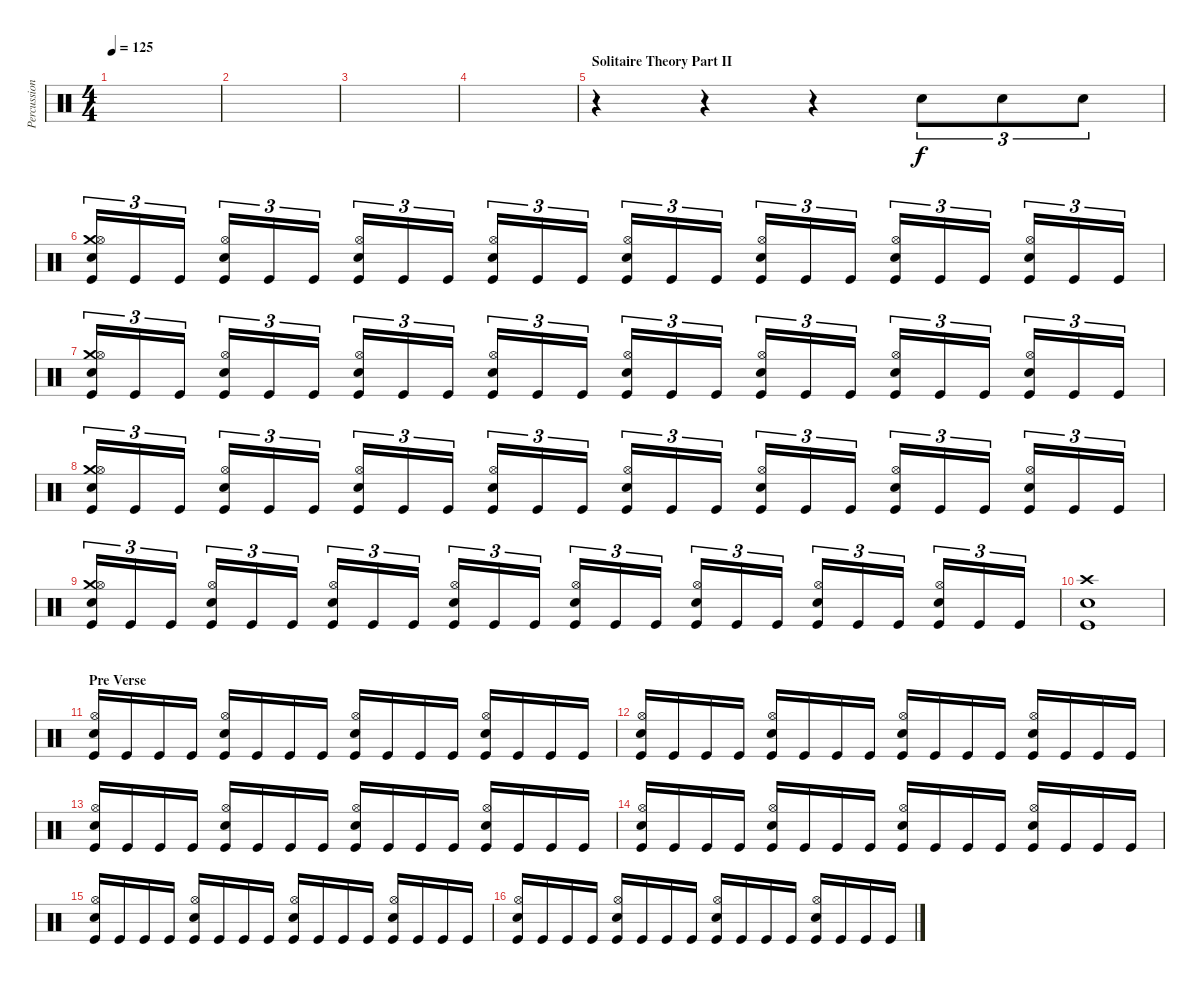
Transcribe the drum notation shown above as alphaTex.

\track ("Percussion" "Percussion") {instrument percussion}
\staff {score}
\articulation defaults
\ts (4 4)
\tempo 125
\clef neutral
\ks c
|
|
|
|
\section ("" "Solitaire Theory Part II")
r.4 r.4 r.4 "Electric Snare (hit)".8{tu (3 2)} "Electric Snare (hit)".8{tu (3 2)} "Electric Snare (hit)".8{tu (3 2)} |
("Crash medium (hit)" "Electric Snare (hit)" "Hi-Hat (open)" "Kick (hit)").16{tu (3 2)} "Kick (hit)".16{tu (3 2)} "Kick (hit)".16{tu (3 2)} ("Electric Snare (hit)" "Hi-Hat (open)" "Kick (hit)").16{tu (3 2)} "Kick (hit)".16{tu (3 2)} "Kick (hit)".16{tu (3 2)} ("Electric Snare (hit)" "Hi-Hat (open)" "Kick (hit)").16{tu (3 2)} "Kick (hit)".16{tu (3 2)} "Kick (hit)".16{tu (3 2)} ("Electric Snare (hit)" "Hi-Hat (open)" "Kick (hit)").16{tu (3 2)} "Kick (hit)".16{tu (3 2)} "Kick (hit)".16{tu (3 2)} ("Electric Snare (hit)" "Hi-Hat (open)" "Kick (hit)").16{tu (3 2)} "Kick (hit)".16{tu (3 2)} "Kick (hit)".16{tu (3 2)} ("Electric Snare (hit)" "Hi-Hat (open)" "Kick (hit)").16{tu (3 2)} "Kick (hit)".16{tu (3 2)} "Kick (hit)".16{tu (3 2)} ("Electric Snare (hit)" "Hi-Hat (open)" "Kick (hit)").16{tu (3 2)} "Kick (hit)".16{tu (3 2)} "Kick (hit)".16{tu (3 2)} ("Electric Snare (hit)" "Hi-Hat (open)" "Kick (hit)").16{tu (3 2)} "Kick (hit)".16{tu (3 2)} "Kick (hit)".16{tu (3 2)} |
("Crash medium (hit)" "Electric Snare (hit)" "Hi-Hat (open)" "Kick (hit)").16{tu (3 2)} "Kick (hit)".16{tu (3 2)} "Kick (hit)".16{tu (3 2)} ("Electric Snare (hit)" "Hi-Hat (open)" "Kick (hit)").16{tu (3 2)} "Kick (hit)".16{tu (3 2)} "Kick (hit)".16{tu (3 2)} ("Electric Snare (hit)" "Hi-Hat (open)" "Kick (hit)").16{tu (3 2)} "Kick (hit)".16{tu (3 2)} "Kick (hit)".16{tu (3 2)} ("Electric Snare (hit)" "Hi-Hat (open)" "Kick (hit)").16{tu (3 2)} "Kick (hit)".16{tu (3 2)} "Kick (hit)".16{tu (3 2)} ("Electric Snare (hit)" "Hi-Hat (open)" "Kick (hit)").16{tu (3 2)} "Kick (hit)".16{tu (3 2)} "Kick (hit)".16{tu (3 2)} ("Electric Snare (hit)" "Hi-Hat (open)" "Kick (hit)").16{tu (3 2)} "Kick (hit)".16{tu (3 2)} "Kick (hit)".16{tu (3 2)} ("Electric Snare (hit)" "Hi-Hat (open)" "Kick (hit)").16{tu (3 2)} "Kick (hit)".16{tu (3 2)} "Kick (hit)".16{tu (3 2)} ("Electric Snare (hit)" "Hi-Hat (open)" "Kick (hit)").16{tu (3 2)} "Kick (hit)".16{tu (3 2)} "Kick (hit)".16{tu (3 2)} |
("Crash medium (hit)" "Electric Snare (hit)" "Hi-Hat (open)" "Kick (hit)").16{tu (3 2)} "Kick (hit)".16{tu (3 2)} "Kick (hit)".16{tu (3 2)} ("Electric Snare (hit)" "Hi-Hat (open)" "Kick (hit)").16{tu (3 2)} "Kick (hit)".16{tu (3 2)} "Kick (hit)".16{tu (3 2)} ("Electric Snare (hit)" "Hi-Hat (open)" "Kick (hit)").16{tu (3 2)} "Kick (hit)".16{tu (3 2)} "Kick (hit)".16{tu (3 2)} ("Electric Snare (hit)" "Hi-Hat (open)" "Kick (hit)").16{tu (3 2)} "Kick (hit)".16{tu (3 2)} "Kick (hit)".16{tu (3 2)} ("Electric Snare (hit)" "Hi-Hat (open)" "Kick (hit)").16{tu (3 2)} "Kick (hit)".16{tu (3 2)} "Kick (hit)".16{tu (3 2)} ("Electric Snare (hit)" "Hi-Hat (open)" "Kick (hit)").16{tu (3 2)} "Kick (hit)".16{tu (3 2)} "Kick (hit)".16{tu (3 2)} ("Electric Snare (hit)" "Hi-Hat (open)" "Kick (hit)").16{tu (3 2)} "Kick (hit)".16{tu (3 2)} "Kick (hit)".16{tu (3 2)} ("Electric Snare (hit)" "Hi-Hat (open)" "Kick (hit)").16{tu (3 2)} "Kick (hit)".16{tu (3 2)} "Kick (hit)".16{tu (3 2)} |
("Crash medium (hit)" "Electric Snare (hit)" "Hi-Hat (open)" "Kick (hit)").16{tu (3 2)} "Kick (hit)".16{tu (3 2)} "Kick (hit)".16{tu (3 2)} ("Electric Snare (hit)" "Hi-Hat (open)" "Kick (hit)").16{tu (3 2)} "Kick (hit)".16{tu (3 2)} "Kick (hit)".16{tu (3 2)} ("Electric Snare (hit)" "Hi-Hat (open)" "Kick (hit)").16{tu (3 2)} "Kick (hit)".16{tu (3 2)} "Kick (hit)".16{tu (3 2)} ("Electric Snare (hit)" "Hi-Hat (open)" "Kick (hit)").16{tu (3 2)} "Kick (hit)".16{tu (3 2)} "Kick (hit)".16{tu (3 2)} ("Electric Snare (hit)" "Hi-Hat (open)" "Kick (hit)").16{tu (3 2)} "Kick (hit)".16{tu (3 2)} "Kick (hit)".16{tu (3 2)} ("Electric Snare (hit)" "Hi-Hat (open)" "Kick (hit)").16{tu (3 2)} "Kick (hit)".16{tu (3 2)} "Kick (hit)".16{tu (3 2)} ("Electric Snare (hit)" "Hi-Hat (open)" "Kick (hit)").16{tu (3 2)} "Kick (hit)".16{tu (3 2)} "Kick (hit)".16{tu (3 2)} ("Electric Snare (hit)" "Hi-Hat (open)" "Kick (hit)").16{tu (3 2)} "Kick (hit)".16{tu (3 2)} "Kick (hit)".16{tu (3 2)} |
("Crash high (hit)" "Electric Snare (hit)" "Kick (hit)").1 |
\section ("" "Pre Verse")
("Kick (hit)" "Electric Snare (hit)" "Hi-Hat (open)").16 "Kick (hit)".16 "Kick (hit)".16 "Kick (hit)".16 ("Kick (hit)" "Electric Snare (hit)" "Hi-Hat (open)").16 "Kick (hit)".16 "Kick (hit)".16 "Kick (hit)".16 ("Kick (hit)" "Electric Snare (hit)" "Hi-Hat (open)").16 "Kick (hit)".16 "Kick (hit)".16 "Kick (hit)".16 ("Kick (hit)" "Electric Snare (hit)" "Hi-Hat (open)").16 "Kick (hit)".16 "Kick (hit)".16 "Kick (hit)".16 |
("Kick (hit)" "Electric Snare (hit)" "Hi-Hat (open)").16 "Kick (hit)".16 "Kick (hit)".16 "Kick (hit)".16 ("Kick (hit)" "Electric Snare (hit)" "Hi-Hat (open)").16 "Kick (hit)".16 "Kick (hit)".16 "Kick (hit)".16 ("Kick (hit)" "Electric Snare (hit)" "Hi-Hat (open)").16 "Kick (hit)".16 "Kick (hit)".16 "Kick (hit)".16 ("Kick (hit)" "Electric Snare (hit)" "Hi-Hat (open)").16 "Kick (hit)".16 "Kick (hit)".16 "Kick (hit)".16 |
("Kick (hit)" "Electric Snare (hit)" "Hi-Hat (open)").16 "Kick (hit)".16 "Kick (hit)".16 "Kick (hit)".16 ("Kick (hit)" "Electric Snare (hit)" "Hi-Hat (open)").16 "Kick (hit)".16 "Kick (hit)".16 "Kick (hit)".16 ("Kick (hit)" "Electric Snare (hit)" "Hi-Hat (open)").16 "Kick (hit)".16 "Kick (hit)".16 "Kick (hit)".16 ("Kick (hit)" "Electric Snare (hit)" "Hi-Hat (open)").16 "Kick (hit)".16 "Kick (hit)".16 "Kick (hit)".16 |
("Kick (hit)" "Electric Snare (hit)" "Hi-Hat (open)").16 "Kick (hit)".16 "Kick (hit)".16 "Kick (hit)".16 ("Kick (hit)" "Electric Snare (hit)" "Hi-Hat (open)").16 "Kick (hit)".16 "Kick (hit)".16 "Kick (hit)".16 ("Kick (hit)" "Electric Snare (hit)" "Hi-Hat (open)").16 "Kick (hit)".16 "Kick (hit)".16 "Kick (hit)".16 ("Kick (hit)" "Electric Snare (hit)" "Hi-Hat (open)").16 "Kick (hit)".16 "Kick (hit)".16 "Kick (hit)".16 |
("Kick (hit)" "Electric Snare (hit)" "Hi-Hat (open)").16 "Kick (hit)".16 "Kick (hit)".16 "Kick (hit)".16 ("Kick (hit)" "Electric Snare (hit)" "Hi-Hat (open)").16 "Kick (hit)".16 "Kick (hit)".16 "Kick (hit)".16 ("Kick (hit)" "Electric Snare (hit)" "Hi-Hat (open)").16 "Kick (hit)".16 "Kick (hit)".16 "Kick (hit)".16 ("Kick (hit)" "Electric Snare (hit)" "Hi-Hat (open)").16 "Kick (hit)".16 "Kick (hit)".16 "Kick (hit)".16 |
("Kick (hit)" "Electric Snare (hit)" "Hi-Hat (open)").16 "Kick (hit)".16 "Kick (hit)".16 "Kick (hit)".16 ("Kick (hit)" "Electric Snare (hit)" "Hi-Hat (open)").16 "Kick (hit)".16 "Kick (hit)".16 "Kick (hit)".16 ("Kick (hit)" "Electric Snare (hit)" "Hi-Hat (open)").16 "Kick (hit)".16 "Kick (hit)".16 "Kick (hit)".16 ("Kick (hit)" "Electric Snare (hit)" "Hi-Hat (open)").16 "Kick (hit)".16 "Kick (hit)".16 "Kick (hit)".16
